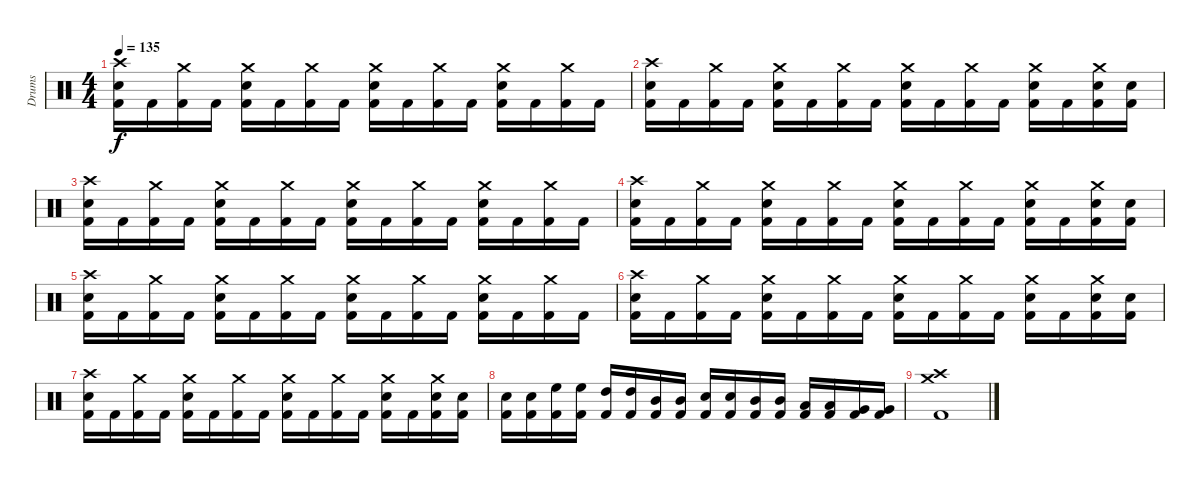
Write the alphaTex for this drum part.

\track ("Drums" "Drums") {instrument percussion}
\staff {score}
\articulation defaults
\ts (4 4)
\tempo 135
\clef neutral
\ks c
("Crash high (hit)" "Snare (hit) 2" "Kick (hit) 2").16{dy f} "Kick (hit) 2".16 ("Crash medium (hit)" "Kick (hit) 2").16 "Kick (hit) 2".16 ("Crash medium (hit)" "Snare (hit) 2" "Kick (hit) 2").16 "Kick (hit) 2".16 ("Crash medium (hit)" "Kick (hit) 2").16 "Kick (hit) 2".16 ("Crash medium (hit)" "Snare (hit) 2" "Kick (hit) 2").16 "Kick (hit) 2".16 ("Crash medium (hit)" "Kick (hit) 2").16 "Kick (hit) 2".16 ("Crash medium (hit)" "Snare (hit) 2" "Kick (hit) 2").16 "Kick (hit) 2".16 ("Crash medium (hit)" "Kick (hit) 2").16 "Kick (hit) 2".16 |
("Crash high (hit)" "Snare (hit) 2" "Kick (hit) 2").16 "Kick (hit) 2".16 ("Crash medium (hit)" "Kick (hit) 2").16 "Kick (hit) 2".16 ("Crash medium (hit)" "Snare (hit) 2" "Kick (hit) 2").16 "Kick (hit) 2".16 ("Crash medium (hit)" "Kick (hit) 2").16 "Kick (hit) 2".16 ("Crash medium (hit)" "Snare (hit) 2" "Kick (hit) 2").16 "Kick (hit) 2".16 ("Crash medium (hit)" "Kick (hit) 2").16 "Kick (hit) 2".16 ("Crash medium (hit)" "Snare (hit) 2" "Kick (hit) 2").16 "Kick (hit) 2".16 ("Crash medium (hit)" "Snare (hit) 2" "Kick (hit) 2").16 ("Snare (hit) 2" "Kick (hit) 2").16 |
("Crash high (hit)" "Snare (hit) 2" "Kick (hit) 2").16 "Kick (hit) 2".16 ("Crash medium (hit)" "Kick (hit) 2").16 "Kick (hit) 2".16 ("Crash medium (hit)" "Snare (hit) 2" "Kick (hit) 2").16 "Kick (hit) 2".16 ("Crash medium (hit)" "Kick (hit) 2").16 "Kick (hit) 2".16 ("Crash medium (hit)" "Snare (hit) 2" "Kick (hit) 2").16 "Kick (hit) 2".16 ("Crash medium (hit)" "Kick (hit) 2").16 "Kick (hit) 2".16 ("Crash medium (hit)" "Snare (hit) 2" "Kick (hit) 2").16 "Kick (hit) 2".16 ("Crash medium (hit)" "Kick (hit) 2").16 "Kick (hit) 2".16 |
("Crash high (hit)" "Snare (hit) 2" "Kick (hit) 2").16 "Kick (hit) 2".16 ("Crash medium (hit)" "Kick (hit) 2").16 "Kick (hit) 2".16 ("Crash medium (hit)" "Snare (hit) 2" "Kick (hit) 2").16 "Kick (hit) 2".16 ("Crash medium (hit)" "Kick (hit) 2").16 "Kick (hit) 2".16 ("Crash medium (hit)" "Snare (hit) 2" "Kick (hit) 2").16 "Kick (hit) 2".16 ("Crash medium (hit)" "Kick (hit) 2").16 "Kick (hit) 2".16 ("Crash medium (hit)" "Snare (hit) 2" "Kick (hit) 2").16 "Kick (hit) 2".16 ("Crash medium (hit)" "Snare (hit) 2" "Kick (hit) 2").16 ("Snare (hit) 2" "Kick (hit) 2").16 |
("Crash high (hit)" "Snare (hit) 2" "Kick (hit) 2").16 "Kick (hit) 2".16 ("Crash medium (hit)" "Kick (hit) 2").16 "Kick (hit) 2".16 ("Crash medium (hit)" "Snare (hit) 2" "Kick (hit) 2").16 "Kick (hit) 2".16 ("Crash medium (hit)" "Kick (hit) 2").16 "Kick (hit) 2".16 ("Crash medium (hit)" "Snare (hit) 2" "Kick (hit) 2").16 "Kick (hit) 2".16 ("Crash medium (hit)" "Kick (hit) 2").16 "Kick (hit) 2".16 ("Crash medium (hit)" "Snare (hit) 2" "Kick (hit) 2").16 "Kick (hit) 2".16 ("Crash medium (hit)" "Kick (hit) 2").16 "Kick (hit) 2".16 |
("Crash high (hit)" "Snare (hit) 2" "Kick (hit) 2").16 "Kick (hit) 2".16 ("Crash medium (hit)" "Kick (hit) 2").16 "Kick (hit) 2".16 ("Crash medium (hit)" "Snare (hit) 2" "Kick (hit) 2").16 "Kick (hit) 2".16 ("Crash medium (hit)" "Kick (hit) 2").16 "Kick (hit) 2".16 ("Crash medium (hit)" "Snare (hit) 2" "Kick (hit) 2").16 "Kick (hit) 2".16 ("Crash medium (hit)" "Kick (hit) 2").16 "Kick (hit) 2".16 ("Crash medium (hit)" "Snare (hit) 2" "Kick (hit) 2").16 "Kick (hit) 2".16 ("Crash medium (hit)" "Snare (hit) 2" "Kick (hit) 2").16 ("Snare (hit) 2" "Kick (hit) 2").16 |
("Crash high (hit)" "Snare (hit) 2" "Kick (hit) 2").16 "Kick (hit) 2".16 ("Crash medium (hit)" "Kick (hit) 2").16 "Kick (hit) 2".16 ("Crash medium (hit)" "Snare (hit) 2" "Kick (hit) 2").16 "Kick (hit) 2".16 ("Crash medium (hit)" "Kick (hit) 2").16 "Kick (hit) 2".16 ("Crash medium (hit)" "Snare (hit) 2" "Kick (hit) 2").16 "Kick (hit) 2".16 ("Crash medium (hit)" "Kick (hit) 2").16 "Kick (hit) 2".16 ("Crash medium (hit)" "Snare (hit) 2" "Kick (hit) 2").16 "Kick (hit) 2".16 ("Crash medium (hit)" "Snare (hit) 2" "Kick (hit) 2").16 ("Snare (hit) 2" "Kick (hit) 2").16 |
("Snare (hit) 2" "Kick (hit) 2").16 ("Snare (hit) 2" "Kick (hit) 2").16 ("High Floor Tom (hit)" "Kick (hit) 2").16 ("High Floor Tom (hit)" "Kick (hit) 2").16 ("High Tom (hit)" "Kick (hit) 2").16 ("High Tom (hit)" "Kick (hit) 2").16 ("Mid Tom (hit)" "Kick (hit) 2").16 ("Mid Tom (hit)" "Kick (hit) 2").16 ("Snare (hit) 2" "Kick (hit) 2").16 ("Snare (hit) 2" "Kick (hit) 2").16 ("Mid Tom (hit)" "Kick (hit) 2").16 ("Mid Tom (hit)" "Kick (hit) 2").16 ("Low Tom (hit)" "Kick (hit) 2").16 ("Low Tom (hit)" "Kick (hit) 2").16 ("Very Low Tom (hit)" "Kick (hit) 2").16 ("Very Low Tom (hit)" "Kick (hit) 2").16 |
("Crash medium (hit)" "Crash high (hit)" "Kick (hit) 2").1
